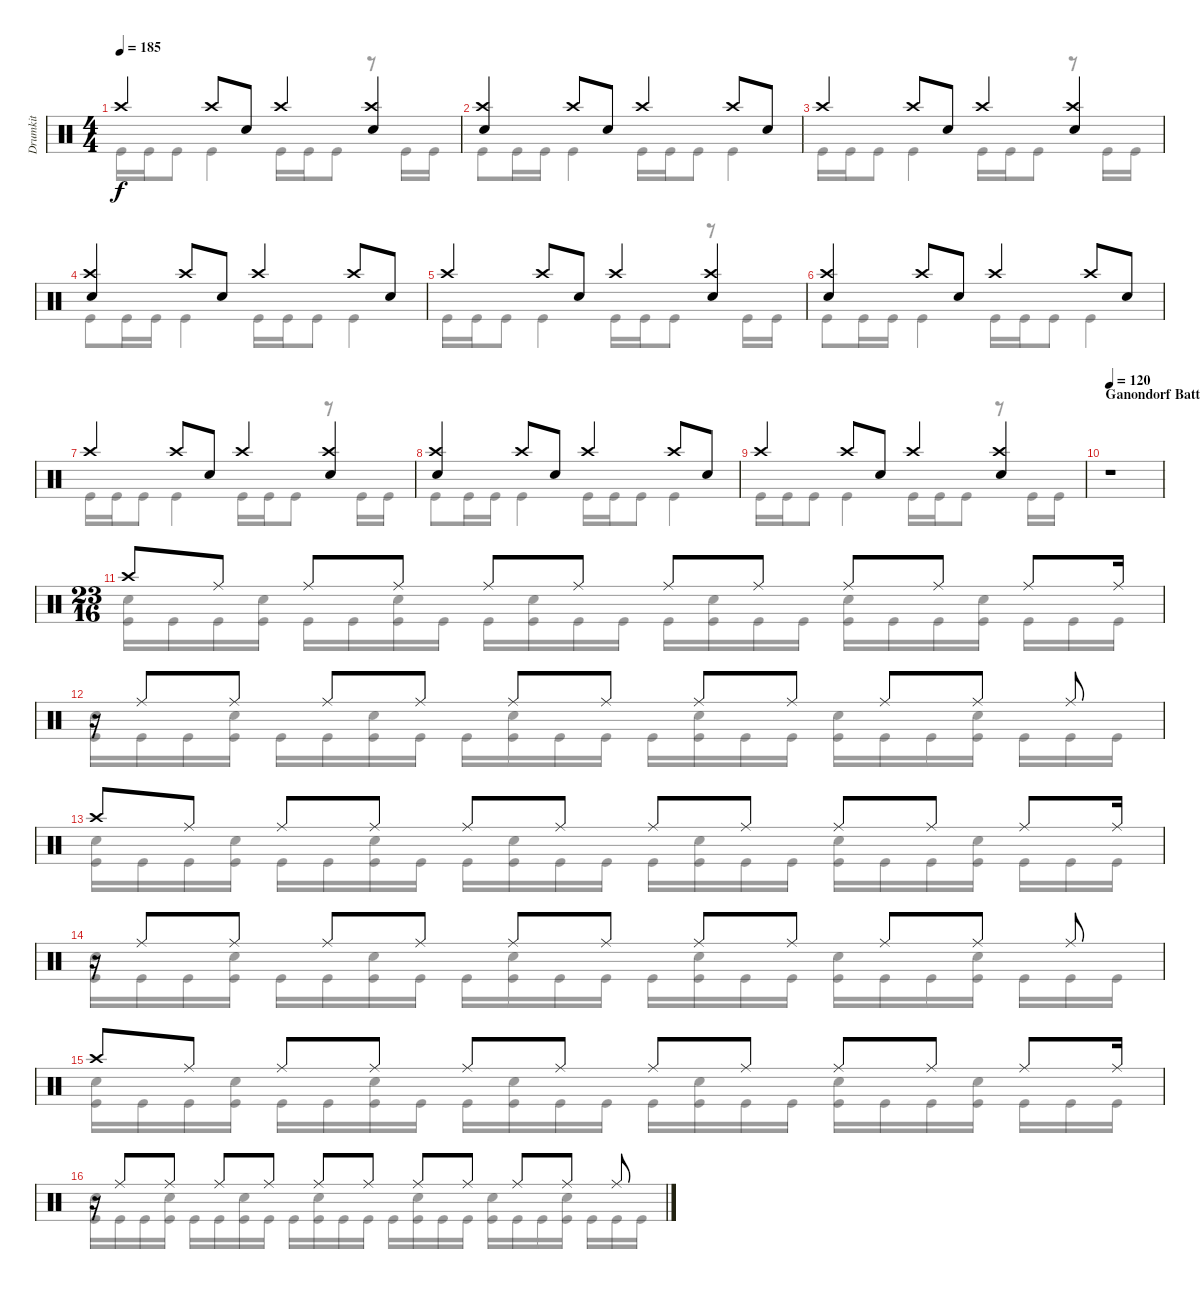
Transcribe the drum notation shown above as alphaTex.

\track ("Drumkit" "Drumkit") {instrument percussion}
\staff {score}
\articulation defaults
\voice
\ts (4 4)
\tempo 185
\clef neutral
\ks c "Crash high (hit)".4{dy f} "Crash high (hit)".8 "Snare (hit) 2".8 "Crash high (hit)".4
("Crash high (hit)" "Snare (hit) 2").4 |
("Crash high (hit)" "Snare (hit) 2").4 "Crash high (hit)".8 "Snare (hit) 2".8 "Crash high (hit)".4 "Crash high (hit)".8 "Snare (hit) 2".8 |
"Crash high (hit)".4 "Crash high (hit)".8 "Snare (hit) 2".8 "Crash high (hit)".4 ("Crash high (hit)" "Snare (hit) 2").4 |
("Crash high (hit)" "Snare (hit) 2").4 "Crash high (hit)".8 "Snare (hit) 2".8 "Crash high (hit)".4 "Crash high (hit)".8 "Snare (hit) 2".8 |
"Crash high (hit)".4 "Crash high (hit)".8 "Snare (hit) 2".8 "Crash high (hit)".4 ("Crash high (hit)" "Snare (hit) 2").4 |
("Crash high (hit)" "Snare (hit) 2").4 "Crash high (hit)".8 "Snare (hit) 2".8 "Crash high (hit)".4 "Crash high (hit)".8 "Snare (hit) 2".8 |
"Crash high (hit)".4 "Crash high (hit)".8 "Snare (hit) 2".8 "Crash high (hit)".4 ("Crash high (hit)" "Snare (hit) 2").4 |
("Crash high (hit)" "Snare (hit) 2").4 "Crash high (hit)".8 "Snare (hit) 2".8 "Crash high (hit)".4 "Crash high (hit)".8 "Snare (hit) 2".8 |
"Crash high (hit)".4 "Crash high (hit)".8 "Snare (hit) 2".8 "Crash high (hit)".4 ("Crash high (hit)" "Snare (hit) 2").4 |
\section ("" "Ganondorf Battle")
\tempo 120
r.1 |
\ts (23 16)
"Crash high (hit)".8 "Ride (middle)".8 "Ride (middle)".8 "Ride (middle)".8 "Ride (middle)".8 "Ride (middle)".8 "Ride (middle)".8 "Ride (middle)".8 "Ride (middle)".8 "Ride (middle)".8 "Ride (middle)".8 "Ride (middle)".16 |
r.16 "Ride (middle)".8 "Ride (middle)".8 "Ride (middle)".8 "Ride (middle)".8 "Ride (middle)".8 "Ride (middle)".8 "Ride (middle)".8 "Ride (middle)".8 "Ride (middle)".8 "Ride (middle)".8 "Ride (middle)".8 |
"Crash high (hit)".8 "Ride (middle)".8 "Ride (middle)".8 "Ride (middle)".8 "Ride (middle)".8 "Ride (middle)".8 "Ride (middle)".8 "Ride (middle)".8 "Ride (middle)".8 "Ride (middle)".8 "Ride (middle)".8 "Ride (middle)".16 |
r.16 "Ride (middle)".8 "Ride (middle)".8 "Ride (middle)".8 "Ride (middle)".8 "Ride (middle)".8 "Ride (middle)".8 "Ride (middle)".8 "Ride (middle)".8 "Ride (middle)".8 "Ride (middle)".8 "Ride (middle)".8 |
"Crash high (hit)".8 "Ride (middle)".8 "Ride (middle)".8 "Ride (middle)".8 "Ride (middle)".8 "Ride (middle)".8 "Ride (middle)".8 "Ride (middle)".8 "Ride (middle)".8 "Ride (middle)".8 "Ride (middle)".8 "Ride (middle)".16 |
r.16 "Ride (middle)".8 "Ride (middle)".8 "Ride (middle)".8 "Ride (middle)".8 "Ride (middle)".8 "Ride (middle)".8 "Ride (middle)".8 "Ride (middle)".8 "Ride (middle)".8 "Ride (middle)".8 "Ride (middle)".8
\voice
\clef neutral
\ottava regular
\simile none
\ks c "Kick (hit)".16{dy f} "Kick (hit)".16 "Kick (hit)".8 "Kick (hit)".4 "Kick (hit)".16 "Kick (hit)".16 "Kick (hit)".8
r.8 "Kick (hit)".16 "Kick (hit)".16 |
"Kick (hit)".8 "Kick (hit)".16 "Kick (hit)".16 "Kick (hit)".4 "Kick (hit)".16 "Kick (hit)".16 "Kick (hit)".8 "Kick (hit)".4 |
"Kick (hit)".16 "Kick (hit)".16 "Kick (hit)".8 "Kick (hit)".4 "Kick (hit)".16 "Kick (hit)".16 "Kick (hit)".8 r.8 "Kick (hit)".16 "Kick (hit)".16 |
"Kick (hit)".8 "Kick (hit)".16 "Kick (hit)".16 "Kick (hit)".4 "Kick (hit)".16 "Kick (hit)".16 "Kick (hit)".8 "Kick (hit)".4 |
"Kick (hit)".16 "Kick (hit)".16 "Kick (hit)".8 "Kick (hit)".4 "Kick (hit)".16 "Kick (hit)".16 "Kick (hit)".8 r.8 "Kick (hit)".16 "Kick (hit)".16 |
"Kick (hit)".8 "Kick (hit)".16 "Kick (hit)".16 "Kick (hit)".4 "Kick (hit)".16 "Kick (hit)".16 "Kick (hit)".8 "Kick (hit)".4 |
"Kick (hit)".16 "Kick (hit)".16 "Kick (hit)".8 "Kick (hit)".4 "Kick (hit)".16 "Kick (hit)".16 "Kick (hit)".8 r.8 "Kick (hit)".16 "Kick (hit)".16 |
"Kick (hit)".8 "Kick (hit)".16 "Kick (hit)".16 "Kick (hit)".4 "Kick (hit)".16 "Kick (hit)".16 "Kick (hit)".8 "Kick (hit)".4 |
"Kick (hit)".16 "Kick (hit)".16 "Kick (hit)".8 "Kick (hit)".4 "Kick (hit)".16 "Kick (hit)".16 "Kick (hit)".8 r.8 "Kick (hit)".16 "Kick (hit)".16 |
|
("Kick (hit)" "Snare (hit) 2").16 "Kick (hit)".16 "Kick (hit)".16 ("Kick (hit)" "Snare (hit) 2").16 "Kick (hit)".16 "Kick (hit)".16 ("Kick (hit)" "Snare (hit) 2").16 "Kick (hit)".16 "Kick (hit)".16 ("Kick (hit)" "Snare (hit) 2").16 "Kick (hit)".16 "Kick (hit)".16 "Kick (hit)".16 ("Kick (hit)" "Snare (hit) 2").16 "Kick (hit)".16 "Kick (hit)".16 ("Kick (hit)" "Snare (hit) 2").16 "Kick (hit)".16 "Kick (hit)".16 ("Kick (hit)" "Snare (hit) 2").16 "Kick (hit)".16 "Kick (hit)".16 "Kick (hit)".16 |
("Kick (hit)" "Snare (hit) 2").16 "Kick (hit)".16 "Kick (hit)".16 ("Kick (hit)" "Snare (hit) 2").16 "Kick (hit)".16 "Kick (hit)".16 ("Kick (hit)" "Snare (hit) 2").16 "Kick (hit)".16 "Kick (hit)".16 ("Kick (hit)" "Snare (hit) 2").16 "Kick (hit)".16 "Kick (hit)".16 "Kick (hit)".16 ("Kick (hit)" "Snare (hit) 2").16 "Kick (hit)".16 "Kick (hit)".16 ("Kick (hit)" "Snare (hit) 2").16 "Kick (hit)".16 "Kick (hit)".16 ("Kick (hit)" "Snare (hit) 2").16 "Kick (hit)".16 "Kick (hit)".16 "Kick (hit)".16 |
("Kick (hit)" "Snare (hit) 2").16 "Kick (hit)".16 "Kick (hit)".16 ("Kick (hit)" "Snare (hit) 2").16 "Kick (hit)".16 "Kick (hit)".16 ("Kick (hit)" "Snare (hit) 2").16 "Kick (hit)".16 "Kick (hit)".16 ("Kick (hit)" "Snare (hit) 2").16 "Kick (hit)".16 "Kick (hit)".16 "Kick (hit)".16 ("Kick (hit)" "Snare (hit) 2").16 "Kick (hit)".16 "Kick (hit)".16 ("Kick (hit)" "Snare (hit) 2").16 "Kick (hit)".16 "Kick (hit)".16 ("Kick (hit)" "Snare (hit) 2").16 "Kick (hit)".16 "Kick (hit)".16 "Kick (hit)".16 |
("Kick (hit)" "Snare (hit) 2").16 "Kick (hit)".16 "Kick (hit)".16 ("Kick (hit)" "Snare (hit) 2").16 "Kick (hit)".16 "Kick (hit)".16 ("Kick (hit)" "Snare (hit) 2").16 "Kick (hit)".16 "Kick (hit)".16 ("Kick (hit)" "Snare (hit) 2").16 "Kick (hit)".16 "Kick (hit)".16 "Kick (hit)".16 ("Kick (hit)" "Snare (hit) 2").16 "Kick (hit)".16 "Kick (hit)".16 ("Kick (hit)" "Snare (hit) 2").16 "Kick (hit)".16 "Kick (hit)".16 ("Kick (hit)" "Snare (hit) 2").16 "Kick (hit)".16 "Kick (hit)".16 "Kick (hit)".16 |
("Kick (hit)" "Snare (hit) 2").16 "Kick (hit)".16 "Kick (hit)".16 ("Kick (hit)" "Snare (hit) 2").16 "Kick (hit)".16 "Kick (hit)".16 ("Kick (hit)" "Snare (hit) 2").16 "Kick (hit)".16 "Kick (hit)".16 ("Kick (hit)" "Snare (hit) 2").16 "Kick (hit)".16 "Kick (hit)".16 "Kick (hit)".16 ("Kick (hit)" "Snare (hit) 2").16 "Kick (hit)".16 "Kick (hit)".16 ("Kick (hit)" "Snare (hit) 2").16 "Kick (hit)".16 "Kick (hit)".16 ("Kick (hit)" "Snare (hit) 2").16 "Kick (hit)".16 "Kick (hit)".16 "Kick (hit)".16 |
("Kick (hit)" "Snare (hit) 2").16 "Kick (hit)".16 "Kick (hit)".16 ("Kick (hit)" "Snare (hit) 2").16 "Kick (hit)".16 "Kick (hit)".16 ("Kick (hit)" "Snare (hit) 2").16 "Kick (hit)".16 "Kick (hit)".16 ("Kick (hit)" "Snare (hit) 2").16 "Kick (hit)".16 "Kick (hit)".16 "Kick (hit)".16 ("Kick (hit)" "Snare (hit) 2").16 "Kick (hit)".16 "Kick (hit)".16 ("Kick (hit)" "Snare (hit) 2").16 "Kick (hit)".16 "Kick (hit)".16 ("Kick (hit)" "Snare (hit) 2").16 "Kick (hit)".16 "Kick (hit)".16 "Kick (hit)".16
